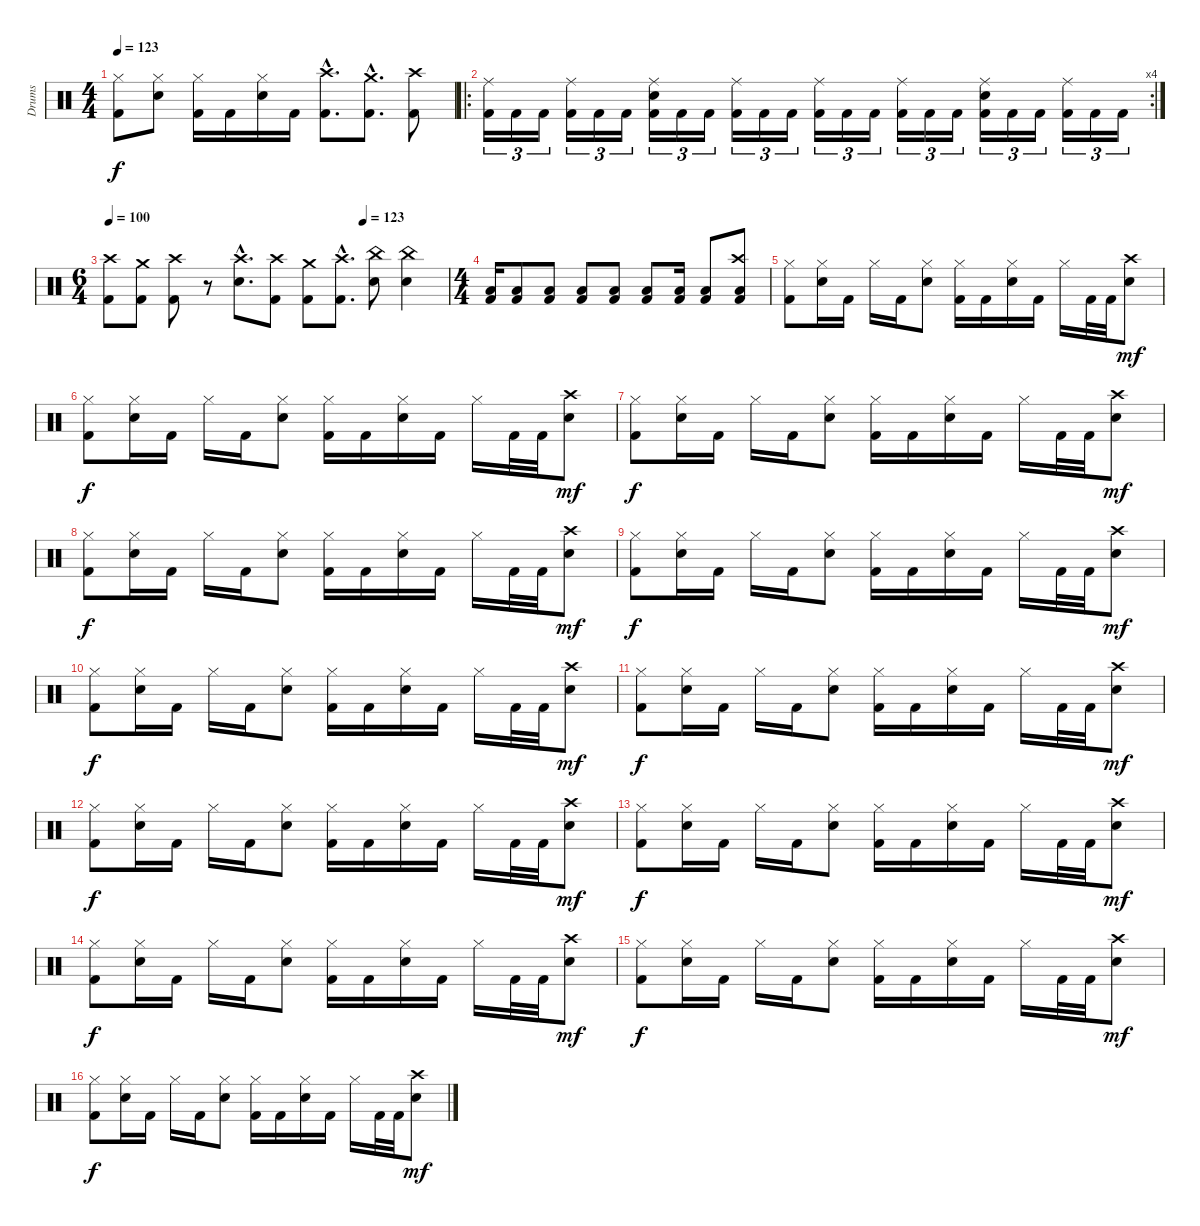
\track ("Drums" "Drums") {instrument percussion}
\staff {score}
\articulation defaults
\ts (4 4)
\tempo 123
\clef neutral
\ks c
("Hi-Hat (closed)" "Kick (hit) 2").8{dy f} ("Hi-Hat (closed)" "Snare (hit) 2").8 ("Hi-Hat (closed)" "Kick (hit) 2").16 "Kick (hit) 2".16 ("Hi-Hat (closed)" "Snare (hit) 2").16 "Kick (hit) 2".16 ("Crash high (hit)"{hac} "Kick (hit) 2"{hac}).8{d} ("Crash medium (hit)"{hac} "Kick (hit) 2"{hac}).8{d} ("Crash high (hit)" "Kick (hit) 2").8 |
\ro
\rc 4
("Ride (middle)" "Kick (hit) 2").16{tu (3 2)} "Kick (hit) 2".16{tu (3 2)} "Kick (hit) 2".16{tu (3 2)} ("Ride (middle)" "Kick (hit) 2").16{tu (3 2)} "Kick (hit) 2".16{tu (3 2)} "Kick (hit) 2".16{tu (3 2)} ("Ride (middle)" "Snare (hit) 2" "Kick (hit) 2").16{tu (3 2)} "Kick (hit) 2".16{tu (3 2)} "Kick (hit) 2".16{tu (3 2)} ("Ride (middle)" "Kick (hit) 2").16{tu (3 2)} "Kick (hit) 2".16{tu (3 2)} "Kick (hit) 2".16{tu (3 2)} ("Ride (middle)" "Kick (hit) 2").16{tu (3 2)} "Kick (hit) 2".16{tu (3 2)} "Kick (hit) 2".16{tu (3 2)} ("Ride (middle)" "Kick (hit) 2").16{tu (3 2)} "Kick (hit) 2".16{tu (3 2)} "Kick (hit) 2".16{tu (3 2)} ("Ride (middle)" "Snare (hit) 2" "Kick (hit) 2").16{tu (3 2)} "Kick (hit) 2".16{tu (3 2)} "Kick (hit) 2".16{tu (3 2)} ("Ride (middle)" "Kick (hit) 2").16{tu (3 2)} "Kick (hit) 2".16{tu (3 2)} "Kick (hit) 2".16{tu (3 2)} |
\ts (6 4)
\tempo 100
\tempo (123 0.75)
("Crash high (hit)" "Kick (hit) 2").8 ("Crash medium (hit)" "Kick (hit) 2").8 ("Crash high (hit)" "Kick (hit) 2").8 r.8 ("Crash high (hit)"{hac} "Snare (hit) 2"{hac}).8{d} ("Crash high (hit)" "Kick (hit) 2").8 ("Crash medium (hit)" "Kick (hit) 2").8 ("Crash high (hit)"{hac} "Kick (hit) 2"{hac}).8{d} ("China (hit)" "Snare (hit) 2").8 ("China (hit)" "Snare (hit) 2").4 |
\ts (4 4)
("Low Floor Tom (hit)" "Kick (hit) 2").16 ("Low Floor Tom (hit)" "Kick (hit) 2").8 ("Low Floor Tom (hit)" "Kick (hit) 2").8 ("Low Floor Tom (hit)" "Kick (hit) 2").8 ("Low Floor Tom (hit)" "Kick (hit) 2").8 ("Low Floor Tom (hit)" "Kick (hit) 2").8 ("Low Floor Tom (hit)" "Kick (hit) 2").16 ("Low Floor Tom (hit)" "Kick (hit) 2").8 ("Crash high (hit)" "Low Floor Tom (hit)" "Kick (hit) 2").8 |
("Hi-Hat (closed)" "Kick (hit) 2").8 ("Hi-Hat (closed)" "Snare (hit) 2").16 "Kick (hit) 2".16 "Hi-Hat (closed)".16 "Kick (hit) 2".16 ("Hi-Hat (closed)" "Snare (hit) 2").8 ("Hi-Hat (closed)" "Kick (hit) 2").16 "Kick (hit) 2".16 ("Hi-Hat (closed)" "Snare (hit) 2").16 "Kick (hit) 2".16 "Hi-Hat (closed)".16 "Kick (hit) 2".32 "Kick (hit) 2".32 ("Crash high (hit)" "Snare (hit) 2").8{dy mf} |
("Hi-Hat (closed)" "Kick (hit) 2").8{dy f} ("Hi-Hat (closed)" "Snare (hit) 2").16 "Kick (hit) 2".16 "Hi-Hat (closed)".16 "Kick (hit) 2".16 ("Hi-Hat (closed)" "Snare (hit) 2").8 ("Hi-Hat (closed)" "Kick (hit) 2").16 "Kick (hit) 2".16 ("Hi-Hat (closed)" "Snare (hit) 2").16 "Kick (hit) 2".16 "Hi-Hat (closed)".16 "Kick (hit) 2".32 "Kick (hit) 2".32 ("Crash high (hit)" "Snare (hit) 2").8{dy mf} |
("Hi-Hat (closed)" "Kick (hit) 2").8{dy f} ("Hi-Hat (closed)" "Snare (hit) 2").16 "Kick (hit) 2".16 "Hi-Hat (closed)".16 "Kick (hit) 2".16 ("Hi-Hat (closed)" "Snare (hit) 2").8 ("Hi-Hat (closed)" "Kick (hit) 2").16 "Kick (hit) 2".16 ("Hi-Hat (closed)" "Snare (hit) 2").16 "Kick (hit) 2".16 "Hi-Hat (closed)".16 "Kick (hit) 2".32 "Kick (hit) 2".32 ("Crash high (hit)" "Snare (hit) 2").8{dy mf} |
("Hi-Hat (closed)" "Kick (hit) 2").8{dy f} ("Hi-Hat (closed)" "Snare (hit) 2").16 "Kick (hit) 2".16 "Hi-Hat (closed)".16 "Kick (hit) 2".16 ("Hi-Hat (closed)" "Snare (hit) 2").8 ("Hi-Hat (closed)" "Kick (hit) 2").16 "Kick (hit) 2".16 ("Hi-Hat (closed)" "Snare (hit) 2").16 "Kick (hit) 2".16 "Hi-Hat (closed)".16 "Kick (hit) 2".32 "Kick (hit) 2".32 ("Crash high (hit)" "Snare (hit) 2").8{dy mf} |
("Hi-Hat (closed)" "Kick (hit) 2").8{dy f} ("Hi-Hat (closed)" "Snare (hit) 2").16 "Kick (hit) 2".16 "Hi-Hat (closed)".16 "Kick (hit) 2".16 ("Hi-Hat (closed)" "Snare (hit) 2").8 ("Hi-Hat (closed)" "Kick (hit) 2").16 "Kick (hit) 2".16 ("Hi-Hat (closed)" "Snare (hit) 2").16 "Kick (hit) 2".16 "Hi-Hat (closed)".16 "Kick (hit) 2".32 "Kick (hit) 2".32 ("Crash high (hit)" "Snare (hit) 2").8{dy mf} |
("Hi-Hat (closed)" "Kick (hit) 2").8{dy f} ("Hi-Hat (closed)" "Snare (hit) 2").16 "Kick (hit) 2".16 "Hi-Hat (closed)".16 "Kick (hit) 2".16 ("Hi-Hat (closed)" "Snare (hit) 2").8 ("Hi-Hat (closed)" "Kick (hit) 2").16 "Kick (hit) 2".16 ("Hi-Hat (closed)" "Snare (hit) 2").16 "Kick (hit) 2".16 "Hi-Hat (closed)".16 "Kick (hit) 2".32 "Kick (hit) 2".32 ("Crash high (hit)" "Snare (hit) 2").8{dy mf} |
("Hi-Hat (closed)" "Kick (hit) 2").8{dy f} ("Hi-Hat (closed)" "Snare (hit) 2").16 "Kick (hit) 2".16 "Hi-Hat (closed)".16 "Kick (hit) 2".16 ("Hi-Hat (closed)" "Snare (hit) 2").8 ("Hi-Hat (closed)" "Kick (hit) 2").16 "Kick (hit) 2".16 ("Hi-Hat (closed)" "Snare (hit) 2").16 "Kick (hit) 2".16 "Hi-Hat (closed)".16 "Kick (hit) 2".32 "Kick (hit) 2".32 ("Crash high (hit)" "Snare (hit) 2").8{dy mf} |
("Hi-Hat (closed)" "Kick (hit) 2").8{dy f} ("Hi-Hat (closed)" "Snare (hit) 2").16 "Kick (hit) 2".16 "Hi-Hat (closed)".16 "Kick (hit) 2".16 ("Hi-Hat (closed)" "Snare (hit) 2").8 ("Hi-Hat (closed)" "Kick (hit) 2").16 "Kick (hit) 2".16 ("Hi-Hat (closed)" "Snare (hit) 2").16 "Kick (hit) 2".16 "Hi-Hat (closed)".16 "Kick (hit) 2".32 "Kick (hit) 2".32 ("Crash high (hit)" "Snare (hit) 2").8{dy mf} |
("Hi-Hat (closed)" "Kick (hit) 2").8{dy f} ("Hi-Hat (closed)" "Snare (hit) 2").16 "Kick (hit) 2".16 "Hi-Hat (closed)".16 "Kick (hit) 2".16 ("Hi-Hat (closed)" "Snare (hit) 2").8 ("Hi-Hat (closed)" "Kick (hit) 2").16 "Kick (hit) 2".16 ("Hi-Hat (closed)" "Snare (hit) 2").16 "Kick (hit) 2".16 "Hi-Hat (closed)".16 "Kick (hit) 2".32 "Kick (hit) 2".32 ("Crash high (hit)" "Snare (hit) 2").8{dy mf} |
("Hi-Hat (closed)" "Kick (hit) 2").8{dy f} ("Hi-Hat (closed)" "Snare (hit) 2").16 "Kick (hit) 2".16 "Hi-Hat (closed)".16 "Kick (hit) 2".16 ("Hi-Hat (closed)" "Snare (hit) 2").8 ("Hi-Hat (closed)" "Kick (hit) 2").16 "Kick (hit) 2".16 ("Hi-Hat (closed)" "Snare (hit) 2").16 "Kick (hit) 2".16 "Hi-Hat (closed)".16 "Kick (hit) 2".32 "Kick (hit) 2".32 ("Crash high (hit)" "Snare (hit) 2").8{dy mf} |
("Hi-Hat (closed)" "Kick (hit) 2").8{dy f} ("Hi-Hat (closed)" "Snare (hit) 2").16 "Kick (hit) 2".16 "Hi-Hat (closed)".16 "Kick (hit) 2".16 ("Hi-Hat (closed)" "Snare (hit) 2").8 ("Hi-Hat (closed)" "Kick (hit) 2").16 "Kick (hit) 2".16 ("Hi-Hat (closed)" "Snare (hit) 2").16 "Kick (hit) 2".16 "Hi-Hat (closed)".16 "Kick (hit) 2".32 "Kick (hit) 2".32 ("Crash high (hit)" "Snare (hit) 2").8{dy mf} |
("Hi-Hat (closed)" "Kick (hit) 2").8{dy f} ("Hi-Hat (closed)" "Snare (hit) 2").16 "Kick (hit) 2".16 "Hi-Hat (closed)".16 "Kick (hit) 2".16 ("Hi-Hat (closed)" "Snare (hit) 2").8 ("Hi-Hat (closed)" "Kick (hit) 2").16 "Kick (hit) 2".16 ("Hi-Hat (closed)" "Snare (hit) 2").16 "Kick (hit) 2".16 "Hi-Hat (closed)".16 "Kick (hit) 2".32 "Kick (hit) 2".32 ("Crash high (hit)" "Snare (hit) 2").8{dy mf}
